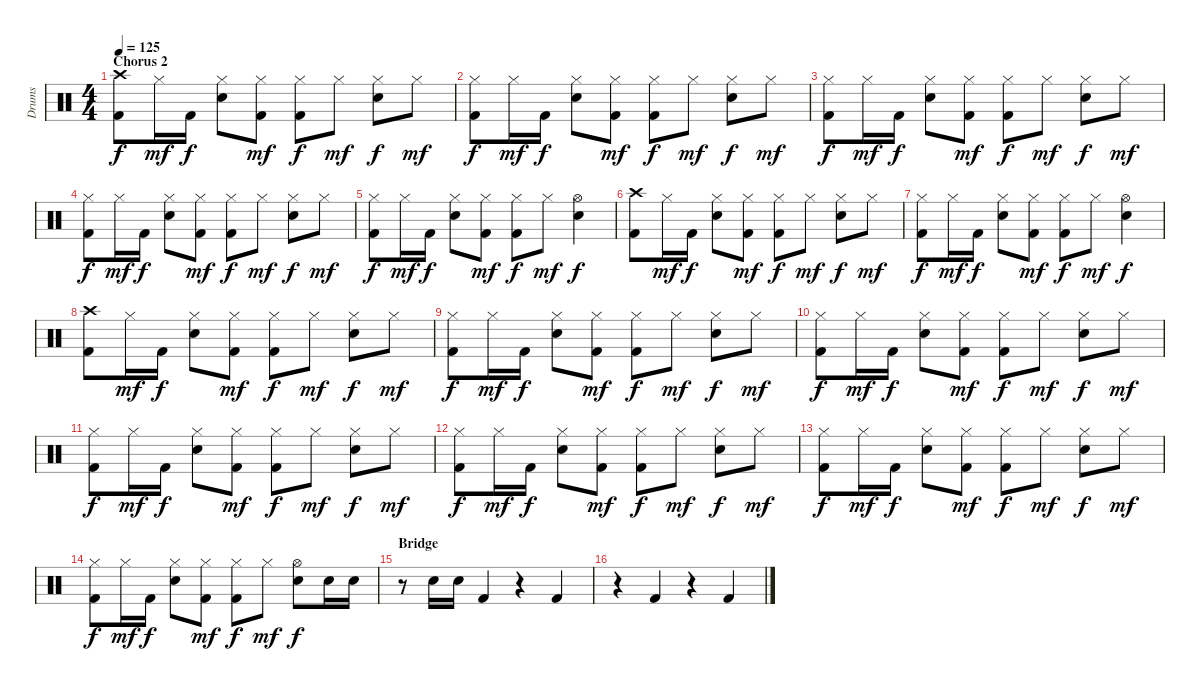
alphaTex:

\track ("Drums" "Drums") {instrument percussion}
\staff {score}
\articulation defaults
\ts (4 4)
\section ("" "Chorus 2")
\tempo 125
\clef neutral
\ks c
("Crash high (hit)" "Kick (hit) 2").8{dy f} "Hi-Hat (closed)".16{dy mf} "Kick (hit) 2".16{dy f} ("Hi-Hat (closed)" "Electric Snare (hit)").8 ("Hi-Hat (closed)" "Kick (hit) 2").8{dy mf} ("Hi-Hat (closed)" "Kick (hit) 2").8{dy f} "Hi-Hat (closed)".8{dy mf} ("Hi-Hat (closed)" "Electric Snare (hit)").8{dy f} "Hi-Hat (closed)".8{dy mf} |
("Hi-Hat (closed)" "Kick (hit) 2").8{dy f} "Hi-Hat (closed)".16{dy mf} "Kick (hit) 2".16{dy f} ("Hi-Hat (closed)" "Electric Snare (hit)").8 ("Hi-Hat (closed)" "Kick (hit) 2").8{dy mf} ("Hi-Hat (closed)" "Kick (hit) 2").8{dy f} "Hi-Hat (closed)".8{dy mf} ("Hi-Hat (closed)" "Electric Snare (hit)").8{dy f} "Hi-Hat (closed)".8{dy mf} |
("Hi-Hat (closed)" "Kick (hit) 2").8{dy f} "Hi-Hat (closed)".16{dy mf} "Kick (hit) 2".16{dy f} ("Hi-Hat (closed)" "Electric Snare (hit)").8 ("Hi-Hat (closed)" "Kick (hit) 2").8{dy mf} ("Hi-Hat (closed)" "Kick (hit) 2").8{dy f} "Hi-Hat (closed)".8{dy mf} ("Hi-Hat (closed)" "Electric Snare (hit)").8{dy f} "Hi-Hat (closed)".8{dy mf} |
("Hi-Hat (closed)" "Kick (hit) 2").8{dy f} "Hi-Hat (closed)".16{dy mf} "Kick (hit) 2".16{dy f} ("Hi-Hat (closed)" "Electric Snare (hit)").8 ("Hi-Hat (closed)" "Kick (hit) 2").8{dy mf} ("Hi-Hat (closed)" "Kick (hit) 2").8{dy f} "Hi-Hat (closed)".8{dy mf} ("Hi-Hat (closed)" "Electric Snare (hit)").8{dy f} "Hi-Hat (closed)".8{dy mf} |
("Hi-Hat (closed)" "Kick (hit) 2").8{dy f} "Hi-Hat (closed)".16{dy mf} "Kick (hit) 2".16{dy f} ("Hi-Hat (closed)" "Electric Snare (hit)").8 ("Hi-Hat (closed)" "Kick (hit) 2").8{dy mf} ("Hi-Hat (closed)" "Kick (hit) 2").8{dy f} "Hi-Hat (closed)".8{dy mf} ("Hi-Hat (open)" "Electric Snare (hit)").4{dy f} |
("Crash high (hit)" "Kick (hit) 2").8 "Hi-Hat (closed)".16{dy mf} "Kick (hit) 2".16{dy f} ("Hi-Hat (closed)" "Electric Snare (hit)").8 ("Hi-Hat (closed)" "Kick (hit) 2").8{dy mf} ("Hi-Hat (closed)" "Kick (hit) 2").8{dy f} "Hi-Hat (closed)".8{dy mf} ("Hi-Hat (closed)" "Electric Snare (hit)").8{dy f} "Hi-Hat (closed)".8{dy mf} |
("Hi-Hat (closed)" "Kick (hit) 2").8{dy f} "Hi-Hat (closed)".16{dy mf} "Kick (hit) 2".16{dy f} ("Hi-Hat (closed)" "Electric Snare (hit)").8 ("Hi-Hat (closed)" "Kick (hit) 2").8{dy mf} ("Hi-Hat (closed)" "Kick (hit) 2").8{dy f} "Hi-Hat (closed)".8{dy mf} ("Hi-Hat (open)" "Electric Snare (hit)").4{dy f} |
("Crash high (hit)" "Kick (hit) 2").8 "Hi-Hat (closed)".16{dy mf} "Kick (hit) 2".16{dy f} ("Hi-Hat (closed)" "Electric Snare (hit)").8 ("Hi-Hat (closed)" "Kick (hit) 2").8{dy mf} ("Hi-Hat (closed)" "Kick (hit) 2").8{dy f} "Hi-Hat (closed)".8{dy mf} ("Hi-Hat (closed)" "Electric Snare (hit)").8{dy f} "Hi-Hat (closed)".8{dy mf} |
("Hi-Hat (closed)" "Kick (hit) 2").8{dy f} "Hi-Hat (closed)".16{dy mf} "Kick (hit) 2".16{dy f} ("Hi-Hat (closed)" "Electric Snare (hit)").8 ("Hi-Hat (closed)" "Kick (hit) 2").8{dy mf} ("Hi-Hat (closed)" "Kick (hit) 2").8{dy f} "Hi-Hat (closed)".8{dy mf} ("Hi-Hat (closed)" "Electric Snare (hit)").8{dy f} "Hi-Hat (closed)".8{dy mf} |
("Hi-Hat (closed)" "Kick (hit) 2").8{dy f} "Hi-Hat (closed)".16{dy mf} "Kick (hit) 2".16{dy f} ("Hi-Hat (closed)" "Electric Snare (hit)").8 ("Hi-Hat (closed)" "Kick (hit) 2").8{dy mf} ("Hi-Hat (closed)" "Kick (hit) 2").8{dy f} "Hi-Hat (closed)".8{dy mf} ("Hi-Hat (closed)" "Electric Snare (hit)").8{dy f} "Hi-Hat (closed)".8{dy mf} |
("Hi-Hat (closed)" "Kick (hit) 2").8{dy f} "Hi-Hat (closed)".16{dy mf} "Kick (hit) 2".16{dy f} ("Hi-Hat (closed)" "Electric Snare (hit)").8 ("Hi-Hat (closed)" "Kick (hit) 2").8{dy mf} ("Hi-Hat (closed)" "Kick (hit) 2").8{dy f} "Hi-Hat (closed)".8{dy mf} ("Hi-Hat (closed)" "Electric Snare (hit)").8{dy f} "Hi-Hat (closed)".8{dy mf} |
("Hi-Hat (closed)" "Kick (hit) 2").8{dy f} "Hi-Hat (closed)".16{dy mf} "Kick (hit) 2".16{dy f} ("Hi-Hat (closed)" "Electric Snare (hit)").8 ("Hi-Hat (closed)" "Kick (hit) 2").8{dy mf} ("Hi-Hat (closed)" "Kick (hit) 2").8{dy f} "Hi-Hat (closed)".8{dy mf} ("Hi-Hat (closed)" "Electric Snare (hit)").8{dy f} "Hi-Hat (closed)".8{dy mf} |
("Hi-Hat (closed)" "Kick (hit) 2").8{dy f} "Hi-Hat (closed)".16{dy mf} "Kick (hit) 2".16{dy f} ("Hi-Hat (closed)" "Electric Snare (hit)").8 ("Hi-Hat (closed)" "Kick (hit) 2").8{dy mf} ("Hi-Hat (closed)" "Kick (hit) 2").8{dy f} "Hi-Hat (closed)".8{dy mf} ("Hi-Hat (closed)" "Electric Snare (hit)").8{dy f} "Hi-Hat (closed)".8{dy mf} |
("Hi-Hat (closed)" "Kick (hit) 2").8{dy f} "Hi-Hat (closed)".16{dy mf} "Kick (hit) 2".16{dy f} ("Hi-Hat (closed)" "Electric Snare (hit)").8 ("Hi-Hat (closed)" "Kick (hit) 2").8{dy mf} ("Hi-Hat (closed)" "Kick (hit) 2").8{dy f} "Hi-Hat (closed)".8{dy mf} ("Hi-Hat (open)" "Electric Snare (hit)").8{dy f} "Electric Snare (hit)".16 "Electric Snare (hit)".16 |
\section ("" "Bridge")
r.8 "Electric Snare (hit)".16 "Electric Snare (hit)".16 "Kick (hit) 2".4 r.4 "Kick (hit) 2".4 |
r.4 "Kick (hit) 2".4 r.4 "Kick (hit) 2".4
